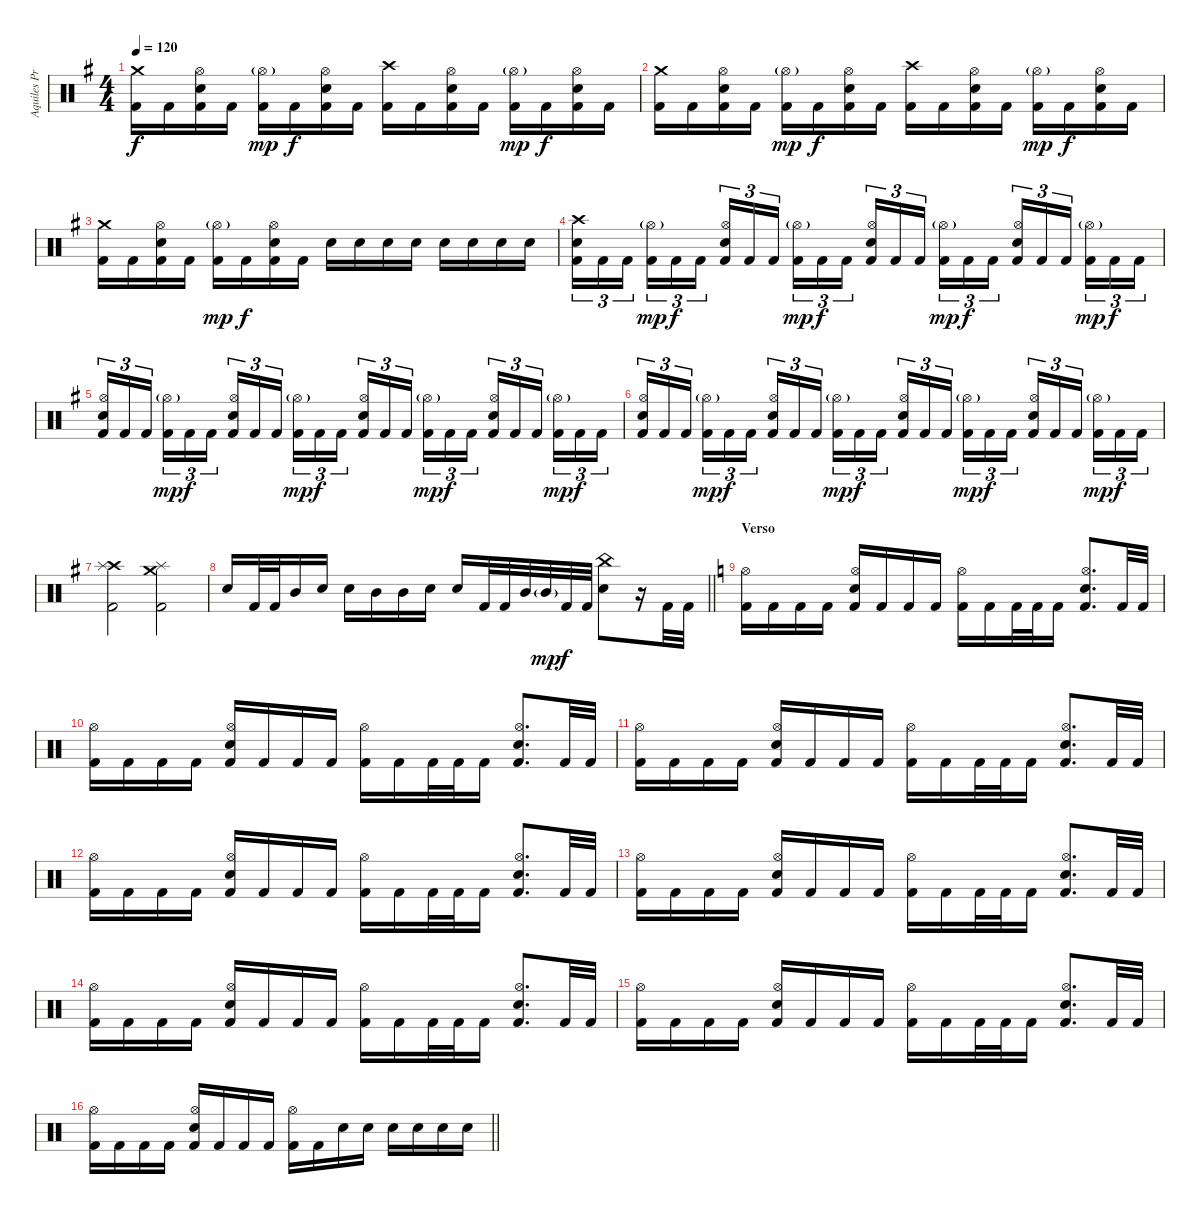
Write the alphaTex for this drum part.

\track ("Aquiles Priester" "Aquiles Pr") {instrument percussion}
\staff {score}
\articulation defaults
\ts (4 4)
\tempo 120
\clef neutral
\ks eminor
("Crash medium (hit)" "Kick (hit) 2").16{dy f} "Kick (hit) 2".16 ("Hi-Hat (open)" "Electric Snare (hit)" "Kick (hit) 2").16 "Kick (hit) 2".16 ("Hi-Hat (open)"{g} "Kick (hit) 2").16{dy mp} "Kick (hit) 2".16{dy f} ("Hi-Hat (open)" "Electric Snare (hit)" "Kick (hit) 2").16 "Kick (hit) 2".16 ("Crash high (hit)" "Kick (hit) 2").16 "Kick (hit) 2".16 ("Hi-Hat (open)" "Electric Snare (hit)" "Kick (hit) 2").16 "Kick (hit) 2".16 ("Hi-Hat (open)"{g} "Kick (hit) 2").16{dy mp} "Kick (hit) 2".16{dy f} ("Hi-Hat (open)" "Electric Snare (hit)" "Kick (hit) 2").16 "Kick (hit) 2".16 |
("Crash medium (hit)" "Kick (hit) 2").16 "Kick (hit) 2".16 ("Hi-Hat (open)" "Electric Snare (hit)" "Kick (hit) 2").16 "Kick (hit) 2".16 ("Hi-Hat (open)"{g} "Kick (hit) 2").16{dy mp} "Kick (hit) 2".16{dy f} ("Hi-Hat (open)" "Electric Snare (hit)" "Kick (hit) 2").16 "Kick (hit) 2".16 ("Crash high (hit)" "Kick (hit) 2").16 "Kick (hit) 2".16 ("Hi-Hat (open)" "Electric Snare (hit)" "Kick (hit) 2").16 "Kick (hit) 2".16 ("Hi-Hat (open)"{g} "Kick (hit) 2").16{dy mp} "Kick (hit) 2".16{dy f} ("Hi-Hat (open)" "Electric Snare (hit)" "Kick (hit) 2").16 "Kick (hit) 2".16 |
("Crash medium (hit)" "Kick (hit) 2").16 "Kick (hit) 2".16 ("Hi-Hat (open)" "Electric Snare (hit)" "Kick (hit) 2").16 "Kick (hit) 2".16 ("Hi-Hat (open)"{g} "Kick (hit) 2").16{dy mp} "Kick (hit) 2".16{dy f} ("Hi-Hat (open)" "Electric Snare (hit)" "Kick (hit) 2").16 "Kick (hit) 2".16 "Electric Snare (hit)".16 "Electric Snare (hit)".16 "Electric Snare (hit)".16 "Electric Snare (hit)".16 "Electric Snare (hit)".16 "Electric Snare (hit)".16 "Electric Snare (hit)".16 "Electric Snare (hit)".16 |
("Crash high (hit)" "Electric Snare (hit)" "Kick (hit) 2").16{tu (3 2)} "Kick (hit) 2".16{tu (3 2)} "Kick (hit) 2".16{tu (3 2)} ("Hi-Hat (open)"{g} "Kick (hit) 2").16{tu (3 2) dy mp} "Kick (hit) 2".16{tu (3 2) dy f} "Kick (hit) 2".16{tu (3 2)} ("Hi-Hat (open)" "Electric Snare (hit)" "Kick (hit) 2").16{tu (3 2)} "Kick (hit) 2".16{tu (3 2)} "Kick (hit) 2".16{tu (3 2)} ("Hi-Hat (open)"{g} "Kick (hit) 2").16{tu (3 2) dy mp} "Kick (hit) 2".16{tu (3 2) dy f} "Kick (hit) 2".16{tu (3 2)} ("Hi-Hat (open)" "Electric Snare (hit)" "Kick (hit) 2").16{tu (3 2)} "Kick (hit) 2".16{tu (3 2)} "Kick (hit) 2".16{tu (3 2)} ("Hi-Hat (open)"{g} "Kick (hit) 2").16{tu (3 2) dy mp} "Kick (hit) 2".16{tu (3 2) dy f} "Kick (hit) 2".16{tu (3 2)} ("Hi-Hat (open)" "Electric Snare (hit)" "Kick (hit) 2").16{tu (3 2)} "Kick (hit) 2".16{tu (3 2)} "Kick (hit) 2".16{tu (3 2)} ("Hi-Hat (open)"{g} "Kick (hit) 2").16{tu (3 2) dy mp} "Kick (hit) 2".16{tu (3 2) dy f} "Kick (hit) 2".16{tu (3 2)} |
("Hi-Hat (open)" "Electric Snare (hit)" "Kick (hit) 2").16{tu (3 2)} "Kick (hit) 2".16{tu (3 2)} "Kick (hit) 2".16{tu (3 2)} ("Hi-Hat (open)"{g} "Kick (hit) 2").16{tu (3 2) dy mp} "Kick (hit) 2".16{tu (3 2) dy f} "Kick (hit) 2".16{tu (3 2)} ("Hi-Hat (open)" "Electric Snare (hit)" "Kick (hit) 2").16{tu (3 2)} "Kick (hit) 2".16{tu (3 2)} "Kick (hit) 2".16{tu (3 2)} ("Hi-Hat (open)"{g} "Kick (hit) 2").16{tu (3 2) dy mp} "Kick (hit) 2".16{tu (3 2) dy f} "Kick (hit) 2".16{tu (3 2)} ("Hi-Hat (open)" "Electric Snare (hit)" "Kick (hit) 2").16{tu (3 2)} "Kick (hit) 2".16{tu (3 2)} "Kick (hit) 2".16{tu (3 2)} ("Hi-Hat (open)"{g} "Kick (hit) 2").16{tu (3 2) dy mp} "Kick (hit) 2".16{tu (3 2) dy f} "Kick (hit) 2".16{tu (3 2)} ("Hi-Hat (open)" "Electric Snare (hit)" "Kick (hit) 2").16{tu (3 2)} "Kick (hit) 2".16{tu (3 2)} "Kick (hit) 2".16{tu (3 2)} ("Hi-Hat (open)"{g} "Kick (hit) 2").16{tu (3 2) dy mp} "Kick (hit) 2".16{tu (3 2) dy f} "Kick (hit) 2".16{tu (3 2)} |
("Hi-Hat (open)" "Electric Snare (hit)" "Kick (hit) 2").16{tu (3 2)} "Kick (hit) 2".16{tu (3 2)} "Kick (hit) 2".16{tu (3 2)} ("Hi-Hat (open)"{g} "Kick (hit) 2").16{tu (3 2) dy mp} "Kick (hit) 2".16{tu (3 2) dy f} "Kick (hit) 2".16{tu (3 2)} ("Hi-Hat (open)" "Electric Snare (hit)" "Kick (hit) 2").16{tu (3 2)} "Kick (hit) 2".16{tu (3 2)} "Kick (hit) 2".16{tu (3 2)} ("Hi-Hat (open)"{g} "Kick (hit) 2").16{tu (3 2) dy mp} "Kick (hit) 2".16{tu (3 2) dy f} "Kick (hit) 2".16{tu (3 2)} ("Hi-Hat (open)" "Electric Snare (hit)" "Kick (hit) 2").16{tu (3 2)} "Kick (hit) 2".16{tu (3 2)} "Kick (hit) 2".16{tu (3 2)} ("Hi-Hat (open)"{g} "Kick (hit) 2").16{tu (3 2) dy mp} "Kick (hit) 2".16{tu (3 2) dy f} "Kick (hit) 2".16{tu (3 2)} ("Hi-Hat (open)" "Electric Snare (hit)" "Kick (hit) 2").16{tu (3 2)} "Kick (hit) 2".16{tu (3 2)} "Kick (hit) 2".16{tu (3 2)} ("Hi-Hat (open)"{g} "Kick (hit) 2").16{tu (3 2) dy mp} "Kick (hit) 2".16{tu (3 2) dy f} "Kick (hit) 2".16{tu (3 2)} |
("Crash high (hit)" "Splash (hit)" "Kick (hit) 2").2 ("Crash medium (hit)" "Splash (hit)" "Kick (hit) 2").2 |
\barLineRight lightlight "Electric Snare (hit)".16 "Kick (hit) 2".32 "Kick (hit) 2".32 "Mid Tom (hit)".16 "Electric Snare (hit)".16 "Electric Snare (hit)".16 "Mid Tom (hit)".16 "Mid Tom (hit)".16 "Electric Snare (hit)".16 "Electric Snare (hit)".16 "Kick (hit) 2".32 "Kick (hit) 2".32 "Mid Tom (hit)".32 "Mid Tom (hit)"{g}.32{dy mp} "Kick (hit) 2".32{dy f} "Kick (hit) 2".32
("China (hit)" "Electric Snare (hit)").8 r.16 "Kick (hit) 2".32 "Kick (hit) 2".32 |
\section ("" "Verso")
\ks c
("Hi-Hat (open)" "Kick (hit) 2").16 "Kick (hit) 2".16 "Kick (hit) 2".16 "Kick (hit) 2".16 ("Hi-Hat (open)" "Electric Snare (hit)" "Kick (hit) 2").16 "Kick (hit) 2".16 "Kick (hit) 2".16 "Kick (hit) 2".16 ("Hi-Hat (open)" "Kick (hit) 2").16 "Kick (hit) 2".16 "Kick (hit) 2".32 "Kick (hit) 2".32 "Kick (hit) 2".16 ("Hi-Hat (open)" "Electric Snare (hit)" "Kick (hit) 2").8{d} "Kick (hit) 2".32 "Kick (hit) 2".32 |
("Hi-Hat (open)" "Kick (hit) 2").16 "Kick (hit) 2".16 "Kick (hit) 2".16 "Kick (hit) 2".16 ("Hi-Hat (open)" "Electric Snare (hit)" "Kick (hit) 2").16 "Kick (hit) 2".16 "Kick (hit) 2".16 "Kick (hit) 2".16 ("Hi-Hat (open)" "Kick (hit) 2").16 "Kick (hit) 2".16 "Kick (hit) 2".32 "Kick (hit) 2".32 "Kick (hit) 2".16 ("Hi-Hat (open)" "Electric Snare (hit)" "Kick (hit) 2").8{d} "Kick (hit) 2".32 "Kick (hit) 2".32 |
("Hi-Hat (open)" "Kick (hit) 2").16 "Kick (hit) 2".16 "Kick (hit) 2".16 "Kick (hit) 2".16 ("Hi-Hat (open)" "Electric Snare (hit)" "Kick (hit) 2").16 "Kick (hit) 2".16 "Kick (hit) 2".16 "Kick (hit) 2".16 ("Hi-Hat (open)" "Kick (hit) 2").16 "Kick (hit) 2".16 "Kick (hit) 2".32 "Kick (hit) 2".32 "Kick (hit) 2".16 ("Hi-Hat (open)" "Electric Snare (hit)" "Kick (hit) 2").8{d} "Kick (hit) 2".32 "Kick (hit) 2".32 |
("Hi-Hat (open)" "Kick (hit) 2").16 "Kick (hit) 2".16 "Kick (hit) 2".16 "Kick (hit) 2".16 ("Hi-Hat (open)" "Electric Snare (hit)" "Kick (hit) 2").16 "Kick (hit) 2".16 "Kick (hit) 2".16 "Kick (hit) 2".16 ("Hi-Hat (open)" "Kick (hit) 2").16 "Kick (hit) 2".16 "Kick (hit) 2".32 "Kick (hit) 2".32 "Kick (hit) 2".16 ("Hi-Hat (open)" "Electric Snare (hit)" "Kick (hit) 2").8{d} "Kick (hit) 2".32 "Kick (hit) 2".32 |
("Hi-Hat (open)" "Kick (hit) 2").16 "Kick (hit) 2".16 "Kick (hit) 2".16 "Kick (hit) 2".16 ("Hi-Hat (open)" "Electric Snare (hit)" "Kick (hit) 2").16 "Kick (hit) 2".16 "Kick (hit) 2".16 "Kick (hit) 2".16 ("Hi-Hat (open)" "Kick (hit) 2").16 "Kick (hit) 2".16 "Kick (hit) 2".32 "Kick (hit) 2".32 "Kick (hit) 2".16 ("Hi-Hat (open)" "Electric Snare (hit)" "Kick (hit) 2").8{d} "Kick (hit) 2".32 "Kick (hit) 2".32 |
("Hi-Hat (open)" "Kick (hit) 2").16 "Kick (hit) 2".16 "Kick (hit) 2".16 "Kick (hit) 2".16 ("Hi-Hat (open)" "Electric Snare (hit)" "Kick (hit) 2").16 "Kick (hit) 2".16 "Kick (hit) 2".16 "Kick (hit) 2".16 ("Hi-Hat (open)" "Kick (hit) 2").16 "Kick (hit) 2".16 "Kick (hit) 2".32 "Kick (hit) 2".32 "Kick (hit) 2".16 ("Hi-Hat (open)" "Electric Snare (hit)" "Kick (hit) 2").8{d} "Kick (hit) 2".32 "Kick (hit) 2".32 |
("Hi-Hat (open)" "Kick (hit) 2").16 "Kick (hit) 2".16 "Kick (hit) 2".16 "Kick (hit) 2".16 ("Hi-Hat (open)" "Electric Snare (hit)" "Kick (hit) 2").16 "Kick (hit) 2".16 "Kick (hit) 2".16 "Kick (hit) 2".16 ("Hi-Hat (open)" "Kick (hit) 2").16 "Kick (hit) 2".16 "Kick (hit) 2".32 "Kick (hit) 2".32 "Kick (hit) 2".16 ("Hi-Hat (open)" "Electric Snare (hit)" "Kick (hit) 2").8{d} "Kick (hit) 2".32 "Kick (hit) 2".32 |
\barLineRight lightlight
("Hi-Hat (open)" "Kick (hit) 2").16 "Kick (hit) 2".16 "Kick (hit) 2".16 "Kick (hit) 2".16 ("Hi-Hat (open)" "Electric Snare (hit)" "Kick (hit) 2").16 "Kick (hit) 2".16 "Kick (hit) 2".16 "Kick (hit) 2".16 ("Hi-Hat (open)" "Kick (hit) 2").16 "Kick (hit) 2".16 "Electric Snare (hit)".16 "Electric Snare (hit)".16 "Electric Snare (hit)".16 "Electric Snare (hit)".16 "Electric Snare (hit)".16 "Electric Snare (hit)".16
